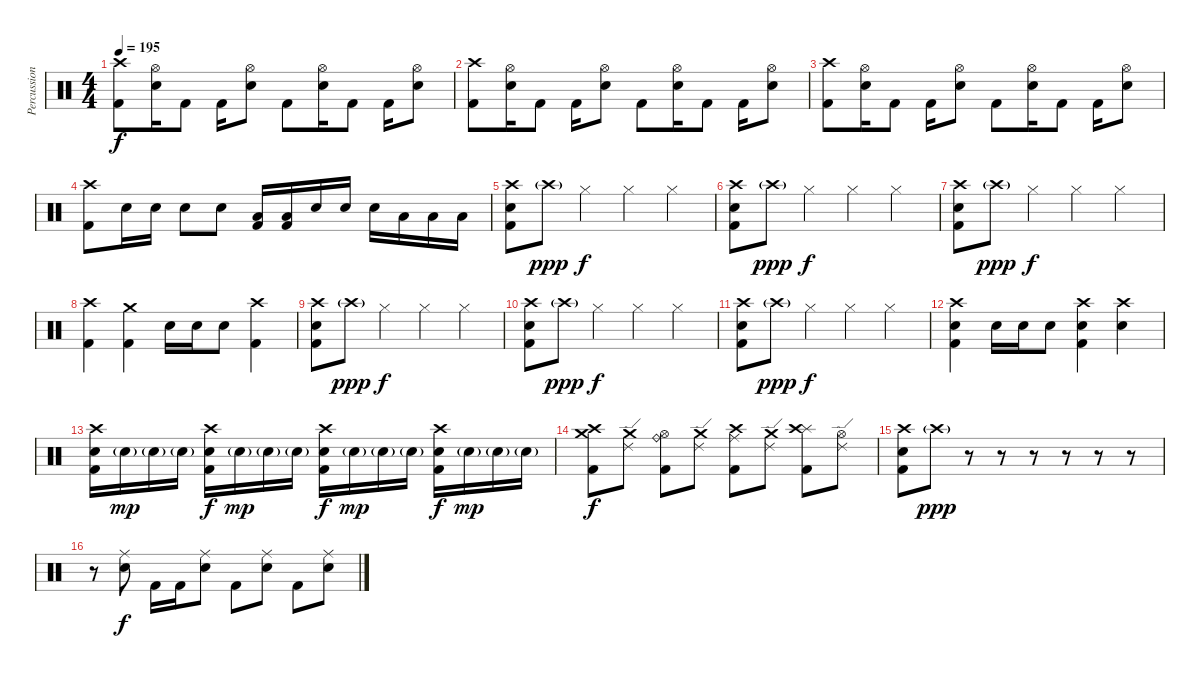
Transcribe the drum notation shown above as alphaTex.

\track ("Percussion" "Percussion") {instrument percussion}
\staff {score}
\articulation defaults
\ts (4 4)
\tempo 195
\clef neutral
\ks c
("Crash high (hit)" "Kick (hit) 2").8{dy f} ("Hi-Hat (open)" "Electric Snare (hit)").16 "Kick (hit) 2".8 "Kick (hit) 2".16 ("Hi-Hat (open)" "Electric Snare (hit)").8 "Kick (hit) 2".8 ("Hi-Hat (open)" "Electric Snare (hit)").16 "Kick (hit) 2".8 "Kick (hit) 2".16 ("Hi-Hat (open)" "Electric Snare (hit)").8 |
("Crash high (hit)" "Kick (hit) 2").8 ("Hi-Hat (open)" "Electric Snare (hit)").16 "Kick (hit) 2".8 "Kick (hit) 2".16 ("Hi-Hat (open)" "Electric Snare (hit)").8 "Kick (hit) 2".8 ("Hi-Hat (open)" "Electric Snare (hit)").16 "Kick (hit) 2".8 "Kick (hit) 2".16 ("Hi-Hat (open)" "Electric Snare (hit)").8 |
("Crash high (hit)" "Kick (hit) 2").8 ("Hi-Hat (open)" "Electric Snare (hit)").16 "Kick (hit) 2".8 "Kick (hit) 2".16 ("Hi-Hat (open)" "Electric Snare (hit)").8 "Kick (hit) 2".8 ("Hi-Hat (open)" "Electric Snare (hit)").16 "Kick (hit) 2".8 "Kick (hit) 2".16 ("Hi-Hat (open)" "Electric Snare (hit)").8 |
("Crash high (hit)" "Kick (hit) 2").8 "Electric Snare (hit)".16 "Electric Snare (hit)".16 "Electric Snare (hit)".8 "Electric Snare (hit)".8 ("Low Tom (hit)" "Kick (hit) 2").16 ("Low Tom (hit)" "Kick (hit) 2").16 "Electric Snare (hit)".16 "Electric Snare (hit)".16 "Electric Snare (hit)".16 "Low Tom (hit)".16 "Low Tom (hit)".16 "Low Tom (hit)".16 |
("Crash high (hit)" "Electric Snare (hit)" "Kick (hit) 2").8 "Crash high (hit)"{g}.8{dy ppp} "Hi-Hat (closed)".4{dy f} "Hi-Hat (closed)".4 "Hi-Hat (closed)".4 |
("Crash high (hit)" "Electric Snare (hit)" "Kick (hit) 2").8 "Crash high (hit)"{g}.8{dy ppp} "Hi-Hat (closed)".4{dy f} "Hi-Hat (closed)".4 "Hi-Hat (closed)".4 |
("Crash high (hit)" "Electric Snare (hit)" "Kick (hit) 2").8 "Crash high (hit)"{g}.8{dy ppp} "Hi-Hat (closed)".4{dy f} "Hi-Hat (closed)".4 "Hi-Hat (closed)".4 |
("Crash high (hit)" "Kick (hit) 2").4 ("Crash medium (hit)" "Kick (hit) 2").4 "Electric Snare (hit)".16 "Electric Snare (hit)".16 "Electric Snare (hit)".8 ("Crash high (hit)" "Kick (hit) 2").4 |
("Crash high (hit)" "Electric Snare (hit)" "Kick (hit) 2").8 "Crash high (hit)"{g}.8{dy ppp} "Hi-Hat (closed)".4{dy f} "Hi-Hat (closed)".4 "Hi-Hat (closed)".4 |
("Crash high (hit)" "Electric Snare (hit)" "Kick (hit) 2").8 "Crash high (hit)"{g}.8{dy ppp} "Hi-Hat (closed)".4{dy f} "Hi-Hat (closed)".4 "Hi-Hat (closed)".4 |
("Crash high (hit)" "Electric Snare (hit)" "Kick (hit) 2").8 "Crash high (hit)"{g}.8{dy ppp} "Hi-Hat (closed)".4{dy f} "Hi-Hat (closed)".4 "Hi-Hat (closed)".4 |
("Crash high (hit)" "Electric Snare (hit)" "Kick (hit) 2").4 "Electric Snare (hit)".16 "Electric Snare (hit)".16 "Electric Snare (hit)".8 ("Crash high (hit)" "Electric Snare (hit)" "Kick (hit) 2").4 ("Crash high (hit)" "Electric Snare (hit)").4 |
("Crash high (hit)" "Electric Snare (hit)" "Kick (hit) 2").16 "Electric Snare (hit)"{g}.16{dy mp} "Electric Snare (hit)"{g}.16 "Electric Snare (hit)"{g}.16 ("Crash high (hit)" "Electric Snare (hit)" "Kick (hit) 2").16{dy f} "Electric Snare (hit)"{g}.16{dy mp} "Electric Snare (hit)"{g}.16 "Electric Snare (hit)"{g}.16 ("Crash high (hit)" "Electric Snare (hit)" "Kick (hit) 2").16{dy f} "Electric Snare (hit)"{g}.16{dy mp} "Electric Snare (hit)"{g}.16 "Electric Snare (hit)"{g}.16 ("Crash high (hit)" "Electric Snare (hit)" "Kick (hit) 2").16{dy f} "Electric Snare (hit)"{g}.16{dy mp} "Electric Snare (hit)"{g}.16 "Electric Snare (hit)"{g}.16 |
("Crash medium (hit)" "Crash high (hit)" "Kick (hit) 2").8{dy f} ("Ride (edge) 2" "Crash medium (hit)").8 ("Hi-Hat (open)" "Ride (bell)" "Kick (hit) 2").8 ("Ride (edge) 2" "Crash medium (hit)").8 ("Ride (middle)" "Crash high (hit)" "Kick (hit) 2").8 ("Ride (edge) 2" "Crash medium (hit)").8 ("Splash (hit)" "Crash high (hit)" "Kick (hit) 2").8 ("Hi-Hat (open)" "Ride (edge) 2").8 |
("Crash high (hit)" "Electric Snare (hit)" "Kick (hit) 2").8 "Crash high (hit)"{g}.8{dy ppp} r.8 r.8 r.8 r.8 r.8 r.8 |
r.8 ("Ride (middle)" "Electric Snare (hit)").8{dy f} "Kick (hit) 2".16 "Kick (hit) 2".16 ("Ride (middle)" "Electric Snare (hit)").8 "Kick (hit) 2".8 ("Ride (middle)" "Electric Snare (hit)").8 "Kick (hit) 2".8 ("Ride (middle)" "Electric Snare (hit)").8
